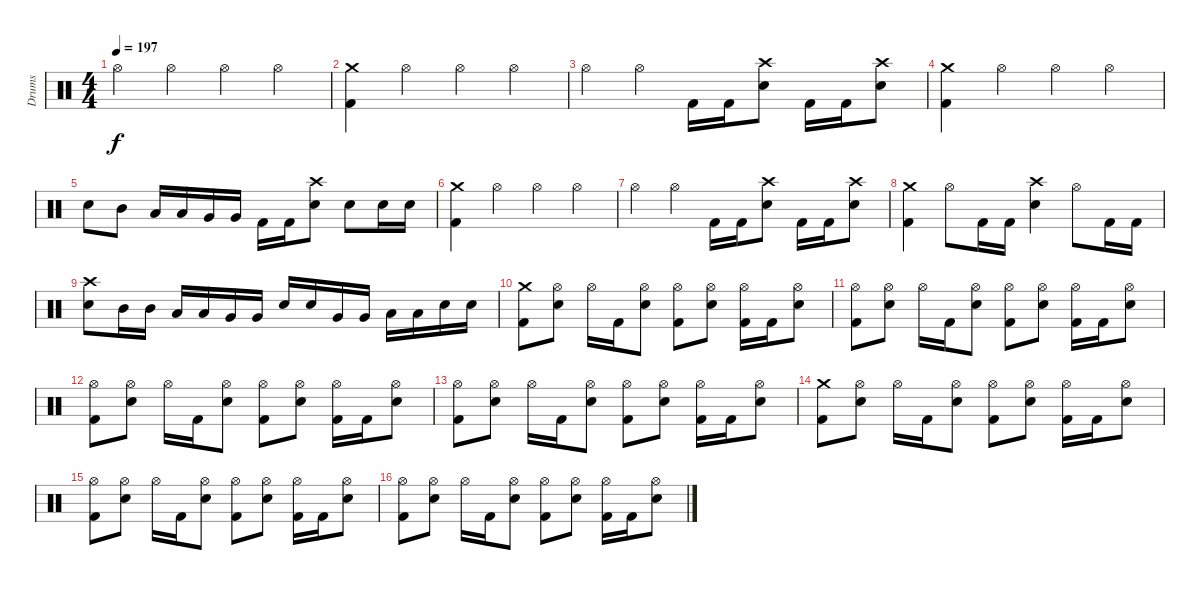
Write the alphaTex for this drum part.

\track ("Drums" "Drums") {instrument percussion}
\staff {score}
\articulation defaults
\ts (4 4)
\tempo 197
\clef neutral
\ks c "Hi-Hat (open)".4{dy f} "Hi-Hat (open)".4 "Hi-Hat (open)".4 "Hi-Hat (open)".4
|
("Crash medium (hit)" "Kick (hit) 2").4 "Hi-Hat (open)".4 "Hi-Hat (open)".4 "Hi-Hat (open)".4 |
"Hi-Hat (open)".4 "Hi-Hat (open)".4 "Kick (hit) 2".16 "Kick (hit) 2".16 ("Crash high (hit)" "Snare (hit) 2").8 "Kick (hit) 2".16 "Kick (hit) 2".16 ("Crash high (hit)" "Snare (hit) 2").8 |
("Crash medium (hit)" "Kick (hit) 2").4 "Hi-Hat (open)".4 "Hi-Hat (open)".4 "Hi-Hat (open)".4 |
"Snare (hit) 2".8 "Mid Tom (hit)".8 "Low Tom (hit)".16 "Low Tom (hit)".16 "Very Low Tom (hit)".16 "Very Low Tom (hit)".16 "Kick (hit) 2".16 "Kick (hit) 2".16 ("Crash high (hit)" "Snare (hit) 2").8 "Snare (hit) 2".8 "Snare (hit) 2".16 "Snare (hit) 2".16 |
("Crash medium (hit)" "Kick (hit) 2").4 "Hi-Hat (open)".4 "Hi-Hat (open)".4 "Hi-Hat (open)".4 |
"Hi-Hat (open)".4 "Hi-Hat (open)".4 "Kick (hit) 2".16 "Kick (hit) 2".16 ("Crash high (hit)" "Snare (hit) 2").8 "Kick (hit) 2".16 "Kick (hit) 2".16 ("Crash high (hit)" "Snare (hit) 2").8 |
("Crash medium (hit)" "Kick (hit) 2").4 "Hi-Hat (open)".8 "Kick (hit) 2".16 "Kick (hit) 2".16 ("Crash high (hit)" "Snare (hit) 2").4 "Hi-Hat (open)".8 "Kick (hit) 2".16 "Kick (hit) 2".16 |
("Crash high (hit)" "Snare (hit) 2").8 "Mid Tom (hit)".16 "Mid Tom (hit)".16 "Low Tom (hit)".16 "Low Tom (hit)".16 "Very Low Tom (hit)".16 "Very Low Tom (hit)".16 "Snare (hit) 2".16 "Snare (hit) 2".16 "Very Low Tom (hit)".16 "Very Low Tom (hit)".16 "Low Floor Tom (hit)".16 "Low Floor Tom (hit)".16 "Snare (hit) 2".16 "Snare (hit) 2".16 |
("Crash medium (hit)" "Kick (hit) 2").8 ("Hi-Hat (open)" "Snare (hit) 2").8 "Hi-Hat (open)".16 "Kick (hit) 2".16 ("Hi-Hat (open)" "Snare (hit) 2").8 ("Hi-Hat (open)" "Kick (hit) 2").8 ("Hi-Hat (open)" "Snare (hit) 2").8 ("Hi-Hat (open)" "Kick (hit) 2").16 "Kick (hit) 2".16 ("Hi-Hat (open)" "Snare (hit) 2").8 |
("Hi-Hat (open)" "Kick (hit) 2").8 ("Hi-Hat (open)" "Snare (hit) 2").8 "Hi-Hat (open)".16 "Kick (hit) 2".16 ("Hi-Hat (open)" "Snare (hit) 2").8 ("Hi-Hat (open)" "Kick (hit) 2").8 ("Hi-Hat (open)" "Snare (hit) 2").8 ("Hi-Hat (open)" "Kick (hit) 2").16 "Kick (hit) 2".16 ("Hi-Hat (open)" "Snare (hit) 2").8 |
("Hi-Hat (open)" "Kick (hit) 2").8 ("Hi-Hat (open)" "Snare (hit) 2").8 "Hi-Hat (open)".16 "Kick (hit) 2".16 ("Hi-Hat (open)" "Snare (hit) 2").8 ("Hi-Hat (open)" "Kick (hit) 2").8 ("Hi-Hat (open)" "Snare (hit) 2").8 ("Hi-Hat (open)" "Kick (hit) 2").16 "Kick (hit) 2".16 ("Hi-Hat (open)" "Snare (hit) 2").8 |
("Hi-Hat (open)" "Kick (hit) 2").8 ("Hi-Hat (open)" "Snare (hit) 2").8 "Hi-Hat (open)".16 "Kick (hit) 2".16 ("Hi-Hat (open)" "Snare (hit) 2").8 ("Hi-Hat (open)" "Kick (hit) 2").8 ("Hi-Hat (open)" "Snare (hit) 2").8 ("Hi-Hat (open)" "Kick (hit) 2").16 "Kick (hit) 2".16 ("Hi-Hat (open)" "Snare (hit) 2").8 |
("Crash medium (hit)" "Kick (hit) 2").8 ("Hi-Hat (open)" "Snare (hit) 2").8 "Hi-Hat (open)".16 "Kick (hit) 2".16 ("Hi-Hat (open)" "Snare (hit) 2").8 ("Hi-Hat (open)" "Kick (hit) 2").8 ("Hi-Hat (open)" "Snare (hit) 2").8 ("Hi-Hat (open)" "Kick (hit) 2").16 "Kick (hit) 2".16 ("Hi-Hat (open)" "Snare (hit) 2").8 |
("Hi-Hat (open)" "Kick (hit) 2").8 ("Hi-Hat (open)" "Snare (hit) 2").8 "Hi-Hat (open)".16 "Kick (hit) 2".16 ("Hi-Hat (open)" "Snare (hit) 2").8 ("Hi-Hat (open)" "Kick (hit) 2").8 ("Hi-Hat (open)" "Snare (hit) 2").8 ("Hi-Hat (open)" "Kick (hit) 2").16 "Kick (hit) 2".16 ("Hi-Hat (open)" "Snare (hit) 2").8 |
("Hi-Hat (open)" "Kick (hit) 2").8 ("Hi-Hat (open)" "Snare (hit) 2").8 "Hi-Hat (open)".16 "Kick (hit) 2".16 ("Hi-Hat (open)" "Snare (hit) 2").8 ("Hi-Hat (open)" "Kick (hit) 2").8 ("Hi-Hat (open)" "Snare (hit) 2").8 ("Hi-Hat (open)" "Kick (hit) 2").16 "Kick (hit) 2".16 ("Hi-Hat (open)" "Snare (hit) 2").8
